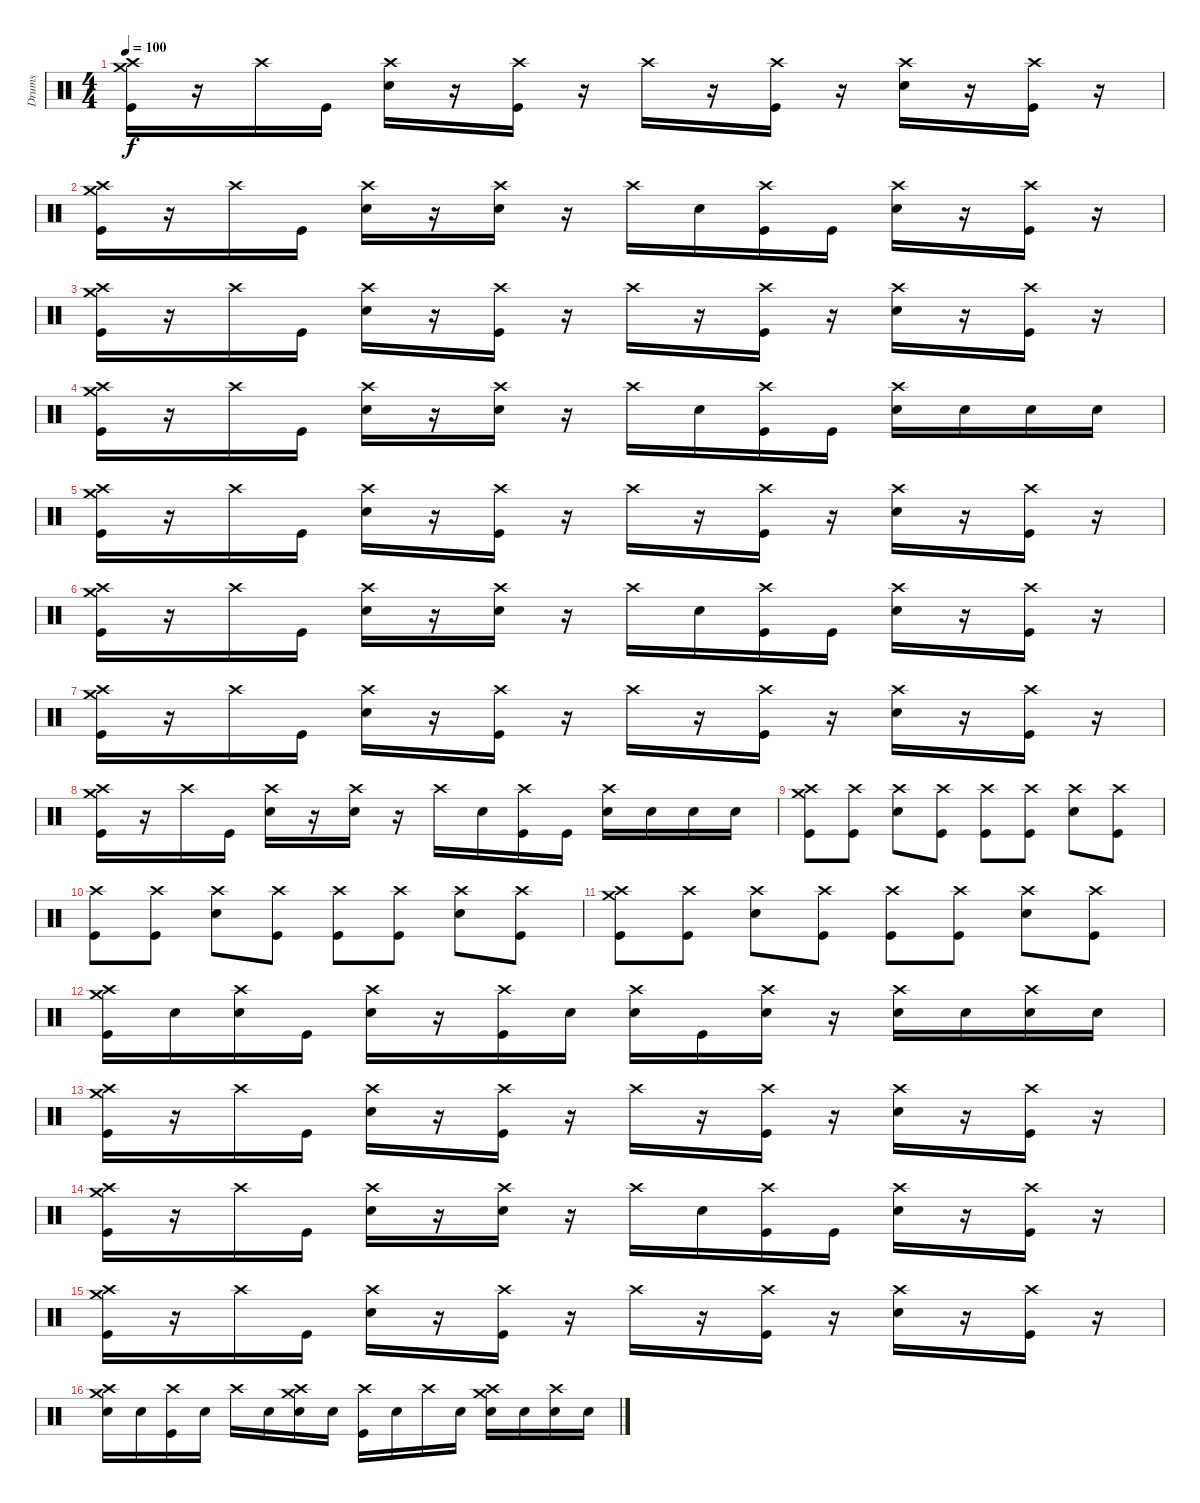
\track ("Drums" "Drums") {instrument percussion}
\staff {score}
\articulation defaults
\ts (4 4)
\tempo 100
\clef neutral
\ks c
("Crash medium (hit)" "Crash high (hit)" "Kick (hit)").16{dy f} r.16 "Crash high (hit)".16 "Kick (hit)".16 ("Crash high (hit)" "Snare (hit) 2").16 r.16 ("Crash high (hit)" "Kick (hit)").16 r.16 "Crash high (hit)".16 r.16 ("Crash high (hit)" "Kick (hit)").16 r.16 ("Crash high (hit)" "Snare (hit) 2").16 r.16 ("Crash high (hit)" "Kick (hit)").16 r.16 |
("Crash medium (hit)" "Crash high (hit)" "Kick (hit)").16 r.16 "Crash high (hit)".16 "Kick (hit)".16 ("Crash high (hit)" "Snare (hit) 2").16 r.16 ("Crash high (hit)" "Snare (hit) 2").16 r.16 "Crash high (hit)".16 "Snare (hit) 2".16 ("Crash high (hit)" "Kick (hit)").16 "Kick (hit)".16 ("Crash high (hit)" "Snare (hit) 2").16 r.16 ("Crash high (hit)" "Kick (hit)").16 r.16 |
("Crash medium (hit)" "Crash high (hit)" "Kick (hit)").16 r.16 "Crash high (hit)".16 "Kick (hit)".16 ("Crash high (hit)" "Snare (hit) 2").16 r.16 ("Crash high (hit)" "Kick (hit)").16 r.16 "Crash high (hit)".16 r.16 ("Crash high (hit)" "Kick (hit)").16 r.16 ("Crash high (hit)" "Snare (hit) 2").16 r.16 ("Crash high (hit)" "Kick (hit)").16 r.16 |
("Crash medium (hit)" "Crash high (hit)" "Kick (hit)").16 r.16 "Crash high (hit)".16 "Kick (hit)".16 ("Crash high (hit)" "Snare (hit) 2").16 r.16 ("Crash high (hit)" "Snare (hit) 2").16 r.16 "Crash high (hit)".16 "Snare (hit) 2".16 ("Crash high (hit)" "Kick (hit)").16 "Kick (hit)".16 ("Crash high (hit)" "Snare (hit) 2").16 "Snare (hit) 2".16 "Snare (hit) 2".16 "Snare (hit) 2".16 |
("Crash medium (hit)" "Crash high (hit)" "Kick (hit)").16 r.16 "Crash high (hit)".16 "Kick (hit)".16 ("Crash high (hit)" "Snare (hit) 2").16 r.16 ("Crash high (hit)" "Kick (hit)").16 r.16 "Crash high (hit)".16 r.16 ("Crash high (hit)" "Kick (hit)").16 r.16 ("Crash high (hit)" "Snare (hit) 2").16 r.16 ("Crash high (hit)" "Kick (hit)").16 r.16 |
("Crash medium (hit)" "Crash high (hit)" "Kick (hit)").16 r.16 "Crash high (hit)".16 "Kick (hit)".16 ("Crash high (hit)" "Snare (hit) 2").16 r.16 ("Crash high (hit)" "Snare (hit) 2").16 r.16 "Crash high (hit)".16 "Snare (hit) 2".16 ("Crash high (hit)" "Kick (hit)").16 "Kick (hit)".16 ("Crash high (hit)" "Snare (hit) 2").16 r.16 ("Crash high (hit)" "Kick (hit)").16 r.16 |
("Crash medium (hit)" "Crash high (hit)" "Kick (hit)").16 r.16 "Crash high (hit)".16 "Kick (hit)".16 ("Crash high (hit)" "Snare (hit) 2").16 r.16 ("Crash high (hit)" "Kick (hit)").16 r.16 "Crash high (hit)".16 r.16 ("Crash high (hit)" "Kick (hit)").16 r.16 ("Crash high (hit)" "Snare (hit) 2").16 r.16 ("Crash high (hit)" "Kick (hit)").16 r.16 |
("Crash medium (hit)" "Crash high (hit)" "Kick (hit)").16 r.16 "Crash high (hit)".16 "Kick (hit)".16 ("Crash high (hit)" "Snare (hit) 2").16 r.16 ("Crash high (hit)" "Snare (hit) 2").16 r.16 "Crash high (hit)".16 "Snare (hit) 2".16 ("Crash high (hit)" "Kick (hit)").16 "Kick (hit)".16 ("Crash high (hit)" "Snare (hit) 2").16 "Snare (hit) 2".16 "Snare (hit) 2".16 "Snare (hit) 2".16 |
("Crash medium (hit)" "Crash high (hit)" "Kick (hit)").8 ("Crash high (hit)" "Kick (hit)").8 ("Crash high (hit)" "Snare (hit) 2").8 ("Crash high (hit)" "Kick (hit)").8 ("Crash high (hit)" "Kick (hit)").8 ("Crash high (hit)" "Kick (hit)").8 ("Crash high (hit)" "Snare (hit) 2").8 ("Crash high (hit)" "Kick (hit)").8 |
("Crash high (hit)" "Kick (hit)").8 ("Crash high (hit)" "Kick (hit)").8 ("Crash high (hit)" "Snare (hit) 2").8 ("Crash high (hit)" "Kick (hit)").8 ("Crash high (hit)" "Kick (hit)").8 ("Crash high (hit)" "Kick (hit)").8 ("Crash high (hit)" "Snare (hit) 2").8 ("Crash high (hit)" "Kick (hit)").8 |
("Crash medium (hit)" "Crash high (hit)" "Kick (hit)").8 ("Crash high (hit)" "Kick (hit)").8 ("Crash high (hit)" "Snare (hit) 2").8 ("Crash high (hit)" "Kick (hit)").8 ("Crash high (hit)" "Kick (hit)").8 ("Crash high (hit)" "Kick (hit)").8 ("Crash high (hit)" "Snare (hit) 2").8 ("Crash high (hit)" "Kick (hit)").8 |
("Crash medium (hit)" "Crash high (hit)" "Kick (hit)").16 "Snare (hit) 2".16 ("Crash high (hit)" "Snare (hit) 2").16 "Kick (hit)".16 ("Crash high (hit)" "Snare (hit) 2").16 r.16 ("Crash high (hit)" "Kick (hit)").16 "Snare (hit) 2".16 ("Crash high (hit)" "Snare (hit) 2").16 "Kick (hit)".16 ("Crash high (hit)" "Snare (hit) 2").16 r.16 ("Crash high (hit)" "Snare (hit) 2").16 "Snare (hit) 2".16 ("Crash high (hit)" "Snare (hit) 2").16 "Snare (hit) 2".16 |
("Crash medium (hit)" "Crash high (hit)" "Kick (hit)").16 r.16 "Crash high (hit)".16 "Kick (hit)".16 ("Crash high (hit)" "Snare (hit) 2").16 r.16 ("Crash high (hit)" "Kick (hit)").16 r.16 "Crash high (hit)".16 r.16 ("Crash high (hit)" "Kick (hit)").16 r.16 ("Crash high (hit)" "Snare (hit) 2").16 r.16 ("Crash high (hit)" "Kick (hit)").16 r.16 |
("Crash medium (hit)" "Crash high (hit)" "Kick (hit)").16 r.16 "Crash high (hit)".16 "Kick (hit)".16 ("Crash high (hit)" "Snare (hit) 2").16 r.16 ("Crash high (hit)" "Snare (hit) 2").16 r.16 "Crash high (hit)".16 "Snare (hit) 2".16 ("Crash high (hit)" "Kick (hit)").16 "Kick (hit)".16 ("Crash high (hit)" "Snare (hit) 2").16 r.16 ("Crash high (hit)" "Kick (hit)").16 r.16 |
("Crash medium (hit)" "Crash high (hit)" "Kick (hit)").16 r.16 "Crash high (hit)".16 "Kick (hit)".16 ("Crash high (hit)" "Snare (hit) 2").16 r.16 ("Crash high (hit)" "Kick (hit)").16 r.16 "Crash high (hit)".16 r.16 ("Crash high (hit)" "Kick (hit)").16 r.16 ("Crash high (hit)" "Snare (hit) 2").16 r.16 ("Crash high (hit)" "Kick (hit)").16 r.16 |
("Crash medium (hit)" "Crash high (hit)" "Snare (hit) 2").16 "Snare (hit) 2".16 ("Crash high (hit)" "Kick (hit)").16 "Snare (hit) 2".16 "Crash high (hit)".16 "Snare (hit) 2".16 ("Crash medium (hit)" "Crash high (hit)" "Snare (hit) 2").16 "Snare (hit) 2".16 ("Crash high (hit)" "Kick (hit)").16 "Snare (hit) 2".16 "Crash high (hit)".16 "Snare (hit) 2".16 ("Crash medium (hit)" "Crash high (hit)" "Snare (hit) 2").16 "Snare (hit) 2".16 ("Crash high (hit)" "Snare (hit) 2").16 "Snare (hit) 2".16
